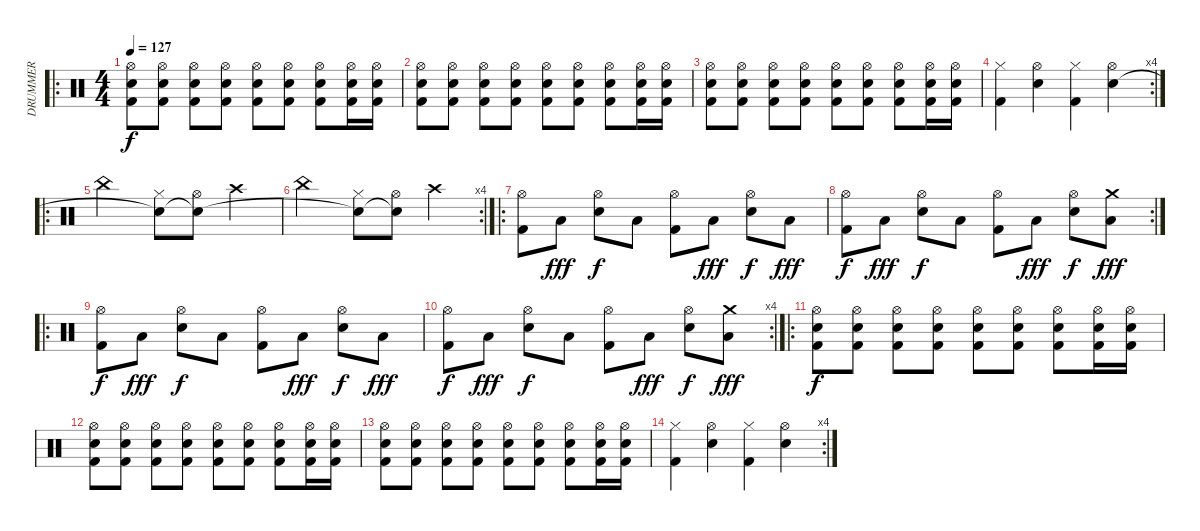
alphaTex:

\track ("DRUMMER" "DRUMMER") {instrument percussion}
\staff {score}
\articulation defaults
\ro
\ts (4 4)
\tempo 127
\clef neutral
\ks c
("Hi-Hat (open)" "Snare (hit) 2" "Kick (hit) 2").8{dy f} ("Hi-Hat (open)" "Snare (hit) 2" "Kick (hit) 2").8 ("Hi-Hat (open)" "Snare (hit) 2" "Kick (hit) 2").8 ("Hi-Hat (open)" "Snare (hit) 2" "Kick (hit) 2").8 ("Hi-Hat (open)" "Snare (hit) 2" "Kick (hit) 2").8 ("Hi-Hat (open)" "Snare (hit) 2" "Kick (hit) 2").8 ("Hi-Hat (open)" "Snare (hit) 2" "Kick (hit) 2").8 ("Hi-Hat (open)" "Snare (hit) 2" "Kick (hit) 2").16 ("Hi-Hat (open)" "Snare (hit) 2" "Kick (hit) 2").16 |
("Hi-Hat (open)" "Snare (hit) 2" "Kick (hit) 2").8 ("Hi-Hat (open)" "Snare (hit) 2" "Kick (hit) 2").8 ("Hi-Hat (open)" "Snare (hit) 2" "Kick (hit) 2").8 ("Hi-Hat (open)" "Snare (hit) 2" "Kick (hit) 2").8 ("Hi-Hat (open)" "Snare (hit) 2" "Kick (hit) 2").8 ("Hi-Hat (open)" "Snare (hit) 2" "Kick (hit) 2").8 ("Hi-Hat (open)" "Snare (hit) 2" "Kick (hit) 2").8 ("Hi-Hat (open)" "Snare (hit) 2" "Kick (hit) 2").16 ("Hi-Hat (open)" "Snare (hit) 2" "Kick (hit) 2").16 |
("Hi-Hat (open)" "Snare (hit) 2" "Kick (hit) 2").8 ("Hi-Hat (open)" "Snare (hit) 2" "Kick (hit) 2").8 ("Hi-Hat (open)" "Snare (hit) 2" "Kick (hit) 2").8 ("Hi-Hat (open)" "Snare (hit) 2" "Kick (hit) 2").8 ("Hi-Hat (open)" "Snare (hit) 2" "Kick (hit) 2").8 ("Hi-Hat (open)" "Snare (hit) 2" "Kick (hit) 2").8 ("Hi-Hat (open)" "Snare (hit) 2" "Kick (hit) 2").8 ("Hi-Hat (open)" "Snare (hit) 2" "Kick (hit) 2").16 ("Hi-Hat (open)" "Snare (hit) 2" "Kick (hit) 2").16 |
\rc 4
("Hi-Hat (closed)" "Kick (hit) 2").4 ("Hi-Hat (open)" "Snare (hit) 2").4 ("Hi-Hat (closed)" "Kick (hit) 2").4 ("Hi-Hat (open)" "Snare (hit) 2").4 |
\ro "China (hit)".2
("Hi-Hat (closed)" "Snare (hit)"{t}).8 ("Hi-Hat (open)" "Snare (hit)"{t}).8 "Crash high (hit)".4 |
\rc 4 "China (hit)".2
("Hi-Hat (closed)" "Snare (hit)"{t}).8 ("Hi-Hat (open)" "Snare (hit)"{t}).8 "Crash high (hit)".4 |
\ro
("Hi-Hat (open)" "Kick (hit) 2").8 "Low Floor Tom (hit)".8{dy fff} ("Hi-Hat (open)" "Snare (hit) 2").8{dy f} "Low Floor Tom (hit)".8 ("Hi-Hat (open)" "Kick (hit) 2").8 "Low Floor Tom (hit)".8{dy fff} ("Hi-Hat (open)" "Snare (hit) 2").8{dy f} "Low Floor Tom (hit)".8{dy fff} |
\rc 2
("Hi-Hat (open)" "Kick (hit) 2").8{dy f} "Low Floor Tom (hit)".8{dy fff} ("Hi-Hat (open)" "Snare (hit) 2").8{dy f} "Low Floor Tom (hit)".8 ("Hi-Hat (open)" "Kick (hit) 2").8 "Low Floor Tom (hit)".8{dy fff} ("Hi-Hat (open)" "Snare (hit) 2").8{dy f} ("Crash medium (hit)" "Low Floor Tom (hit)").8{dy fff} |
\ro
("Hi-Hat (open)" "Kick (hit) 2").8{dy f} "Low Floor Tom (hit)".8{dy fff} ("Hi-Hat (open)" "Snare (hit) 2").8{dy f} "Low Floor Tom (hit)".8 ("Hi-Hat (open)" "Kick (hit) 2").8 "Low Floor Tom (hit)".8{dy fff} ("Hi-Hat (open)" "Snare (hit) 2").8{dy f} "Low Floor Tom (hit)".8{dy fff} |
\rc 4
("Hi-Hat (open)" "Kick (hit) 2").8{dy f} "Low Floor Tom (hit)".8{dy fff} ("Hi-Hat (open)" "Snare (hit) 2").8{dy f} "Low Floor Tom (hit)".8 ("Hi-Hat (open)" "Kick (hit) 2").8 "Low Floor Tom (hit)".8{dy fff} ("Hi-Hat (open)" "Snare (hit) 2").8{dy f} ("Crash medium (hit)" "Low Floor Tom (hit)").8{dy fff} |
\ro
("Hi-Hat (open)" "Snare (hit) 2" "Kick (hit) 2").8{dy f} ("Hi-Hat (open)" "Snare (hit) 2" "Kick (hit) 2").8 ("Hi-Hat (open)" "Snare (hit) 2" "Kick (hit) 2").8 ("Hi-Hat (open)" "Snare (hit) 2" "Kick (hit) 2").8 ("Hi-Hat (open)" "Snare (hit) 2" "Kick (hit) 2").8 ("Hi-Hat (open)" "Snare (hit) 2" "Kick (hit) 2").8 ("Hi-Hat (open)" "Snare (hit) 2" "Kick (hit) 2").8 ("Hi-Hat (open)" "Snare (hit) 2" "Kick (hit) 2").16 ("Hi-Hat (open)" "Snare (hit) 2" "Kick (hit) 2").16 |
("Hi-Hat (open)" "Snare (hit) 2" "Kick (hit) 2").8 ("Hi-Hat (open)" "Snare (hit) 2" "Kick (hit) 2").8 ("Hi-Hat (open)" "Snare (hit) 2" "Kick (hit) 2").8 ("Hi-Hat (open)" "Snare (hit) 2" "Kick (hit) 2").8 ("Hi-Hat (open)" "Snare (hit) 2" "Kick (hit) 2").8 ("Hi-Hat (open)" "Snare (hit) 2" "Kick (hit) 2").8 ("Hi-Hat (open)" "Snare (hit) 2" "Kick (hit) 2").8 ("Hi-Hat (open)" "Snare (hit) 2" "Kick (hit) 2").16 ("Hi-Hat (open)" "Snare (hit) 2" "Kick (hit) 2").16 |
("Hi-Hat (open)" "Snare (hit) 2" "Kick (hit) 2").8 ("Hi-Hat (open)" "Snare (hit) 2" "Kick (hit) 2").8 ("Hi-Hat (open)" "Snare (hit) 2" "Kick (hit) 2").8 ("Hi-Hat (open)" "Snare (hit) 2" "Kick (hit) 2").8 ("Hi-Hat (open)" "Snare (hit) 2" "Kick (hit) 2").8 ("Hi-Hat (open)" "Snare (hit) 2" "Kick (hit) 2").8 ("Hi-Hat (open)" "Snare (hit) 2" "Kick (hit) 2").8 ("Hi-Hat (open)" "Snare (hit) 2" "Kick (hit) 2").16 ("Hi-Hat (open)" "Snare (hit) 2" "Kick (hit) 2").16 |
\rc 4
("Hi-Hat (closed)" "Kick (hit) 2").4 ("Hi-Hat (open)" "Snare (hit) 2").4 ("Hi-Hat (closed)" "Kick (hit) 2").4 ("Hi-Hat (open)" "Snare (hit) 2").4
